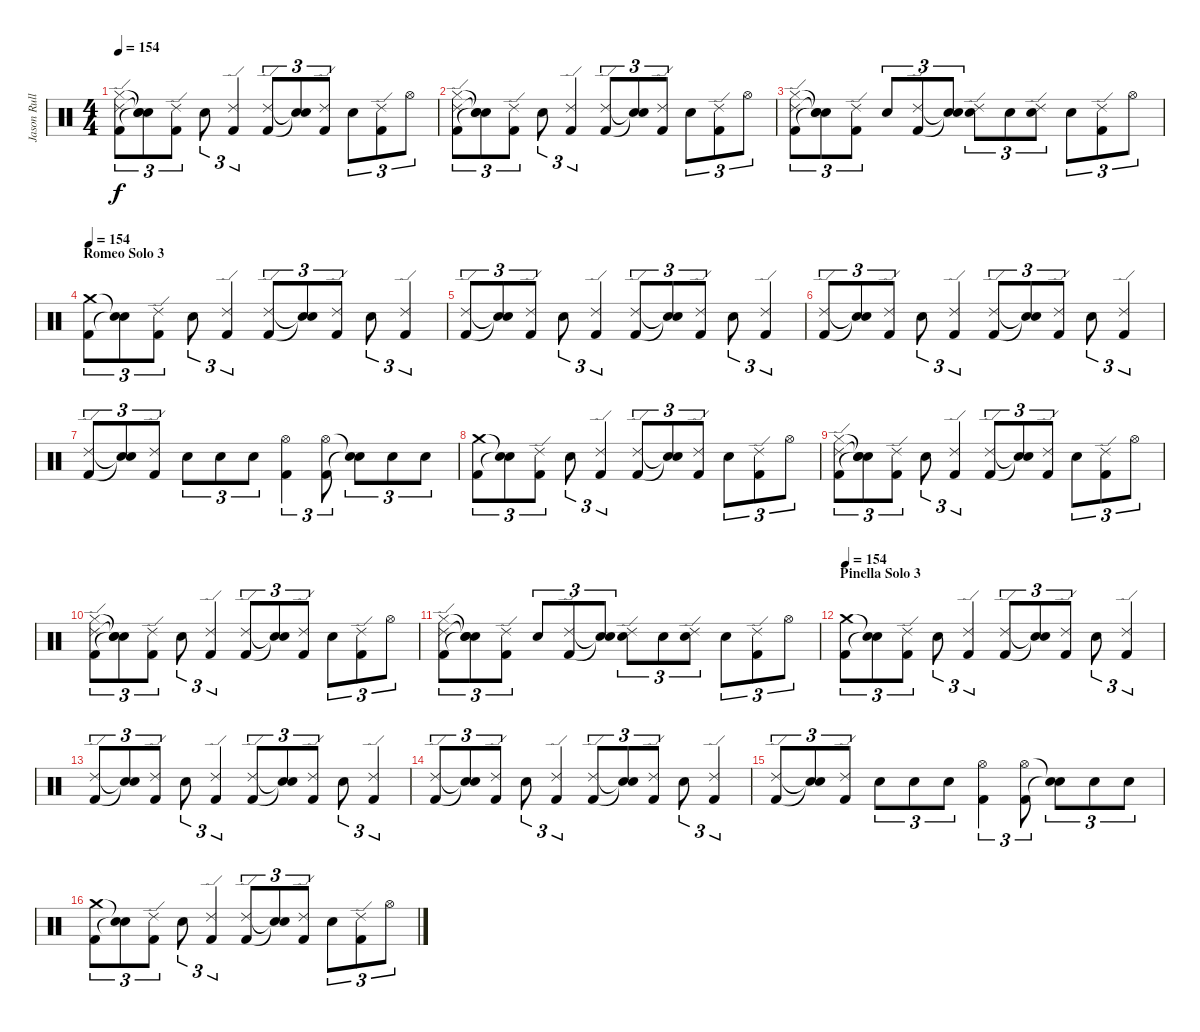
\track ("Jason Rullo" "Jason Rull") {instrument percussion}
\staff {score}
\articulation defaults
\ts (4 4)
\tempo 154
\clef neutral
\ks c
("Hi-Hat (closed)" "Ride (edge) 2" "Kick (hit) 2").8{tu (3 2) dy f} ("Snare (hit)"{t} "Snare (hit)"{t} "Snare (hit)"{t}).8{tu (3 2)} ("Ride (edge) 2" "Kick (hit) 2").8{tu (3 2)} "Electric Snare (hit)".8{tu (3 2)} ("Ride (edge) 2" "Kick (hit) 2").4{tu (3 2)} ("Ride (edge) 2" "Kick (hit) 2").8{tu (3 2)} ("Snare (hit)"{t} "Snare (hit)"{t}).8{tu (3 2)} ("Ride (edge) 2" "Kick (hit) 2").8{tu (3 2)} "Electric Snare (hit)".8{tu (3 2)} ("Ride (edge) 2" "Kick (hit) 2").8{tu (3 2)} "Hi-Hat (open)".8{tu (3 2)} |
("Hi-Hat (closed)" "Ride (edge) 2" "Kick (hit) 2").8{tu (3 2)} ("Snare (hit)"{t} "Snare (hit)"{t} "Snare (hit)"{t}).8{tu (3 2)} ("Ride (edge) 2" "Kick (hit) 2").8{tu (3 2)} "Electric Snare (hit)".8{tu (3 2)} ("Ride (edge) 2" "Kick (hit) 2").4{tu (3 2)} ("Ride (edge) 2" "Kick (hit) 2").8{tu (3 2)} ("Snare (hit)"{t} "Snare (hit)"{t}).8{tu (3 2)} ("Ride (edge) 2" "Kick (hit) 2").8{tu (3 2)} "Electric Snare (hit)".8{tu (3 2)} ("Ride (edge) 2" "Kick (hit) 2").8{tu (3 2)} "Hi-Hat (open)".8{tu (3 2)} |
("Hi-Hat (closed)" "Ride (edge) 2" "Kick (hit) 2").8{tu (3 2)} ("Snare (hit)"{t} "Snare (hit)"{t} "Snare (hit)"{t}).8{tu (3 2)} ("Ride (edge) 2" "Kick (hit) 2").8{tu (3 2)} "Electric Snare (hit)".8{tu (3 2)} ("Ride (edge) 2" "Kick (hit) 2").8{tu (3 2)} ("Snare (hit)"{t} "Snare (hit)"{t}).8{tu (3 2)} ("Electric Snare (hit)" "Ride (edge) 2").8{tu (3 2)} "Electric Snare (hit)".8{tu (3 2)} ("Electric Snare (hit)" "Ride (edge) 2").8{tu (3 2)} "Electric Snare (hit)".8{tu (3 2)} ("Ride (edge) 2" "Kick (hit) 2").8{tu (3 2)} "Hi-Hat (open)".8{tu (3 2)} |
\section ("" "Romeo Solo 3")
\tempo 154
("Crash medium (hit)" "Kick (hit) 2").8{tu (3 2)} ("Snare (hit)"{t} "Snare (hit)"{t}).8{tu (3 2)} ("Ride (edge) 2" "Kick (hit) 2").8{tu (3 2)} "Electric Snare (hit)".8{tu (3 2)} ("Ride (edge) 2" "Kick (hit) 2").4{tu (3 2)} ("Ride (edge) 2" "Kick (hit) 2").8{tu (3 2)} ("Snare (hit)"{t} "Snare (hit)"{t}).8{tu (3 2)} ("Ride (edge) 2" "Kick (hit) 2").8{tu (3 2)} "Electric Snare (hit)".8{tu (3 2)} ("Ride (edge) 2" "Kick (hit) 2").4{tu (3 2)} |
("Ride (edge) 2" "Kick (hit) 2").8{tu (3 2)} ("Snare (hit)"{t} "Snare (hit)"{t}).8{tu (3 2)} ("Ride (edge) 2" "Kick (hit) 2").8{tu (3 2)} "Electric Snare (hit)".8{tu (3 2)} ("Ride (edge) 2" "Kick (hit) 2").4{tu (3 2)} ("Ride (edge) 2" "Kick (hit) 2").8{tu (3 2)} ("Snare (hit)"{t} "Snare (hit)"{t}).8{tu (3 2)} ("Ride (edge) 2" "Kick (hit) 2").8{tu (3 2)} "Electric Snare (hit)".8{tu (3 2)} ("Ride (edge) 2" "Kick (hit) 2").4{tu (3 2)} |
("Ride (edge) 2" "Kick (hit) 2").8{tu (3 2)} ("Snare (hit)"{t} "Snare (hit)"{t}).8{tu (3 2)} ("Ride (edge) 2" "Kick (hit) 2").8{tu (3 2)} "Electric Snare (hit)".8{tu (3 2)} ("Ride (edge) 2" "Kick (hit) 2").4{tu (3 2)} ("Ride (edge) 2" "Kick (hit) 2").8{tu (3 2)} ("Snare (hit)"{t} "Snare (hit)"{t}).8{tu (3 2)} ("Ride (edge) 2" "Kick (hit) 2").8{tu (3 2)} "Electric Snare (hit)".8{tu (3 2)} ("Ride (edge) 2" "Kick (hit) 2").4{tu (3 2)} |
("Ride (edge) 2" "Kick (hit) 2").8{tu (3 2)} ("Snare (hit)"{t} "Snare (hit)"{t}).8{tu (3 2)} ("Ride (edge) 2" "Kick (hit) 2").8{tu (3 2)} "Electric Snare (hit)".8{tu (3 2)} "Electric Snare (hit)".8{tu (3 2)} "Electric Snare (hit)".8{tu (3 2)} ("Hi-Hat (open)" "Kick (hit) 2").4{tu (3 2)} ("Hi-Hat (open)" "Kick (hit) 2").8{tu (3 2)} ("Snare (hit)"{t} "Snare (hit)"{t}).8{tu (3 2)} "Electric Snare (hit)".8{tu (3 2)} "Electric Snare (hit)".8{tu (3 2)} |
("Crash medium (hit)" "Kick (hit) 2").8{tu (3 2)} ("Snare (hit)"{t} "Snare (hit)"{t}).8{tu (3 2)} ("Ride (edge) 2" "Kick (hit) 2").8{tu (3 2)} "Electric Snare (hit)".8{tu (3 2)} ("Ride (edge) 2" "Kick (hit) 2").4{tu (3 2)} ("Ride (edge) 2" "Kick (hit) 2").8{tu (3 2)} ("Snare (hit)"{t} "Snare (hit)"{t}).8{tu (3 2)} ("Ride (edge) 2" "Kick (hit) 2").8{tu (3 2)} "Electric Snare (hit)".8{tu (3 2)} ("Ride (edge) 2" "Kick (hit) 2").8{tu (3 2)} "Hi-Hat (open)".8{tu (3 2)} |
("Hi-Hat (closed)" "Ride (edge) 2" "Kick (hit) 2").8{tu (3 2)} ("Snare (hit)"{t} "Snare (hit)"{t} "Snare (hit)"{t}).8{tu (3 2)} ("Ride (edge) 2" "Kick (hit) 2").8{tu (3 2)} "Electric Snare (hit)".8{tu (3 2)} ("Ride (edge) 2" "Kick (hit) 2").4{tu (3 2)} ("Ride (edge) 2" "Kick (hit) 2").8{tu (3 2)} ("Snare (hit)"{t} "Snare (hit)"{t}).8{tu (3 2)} ("Ride (edge) 2" "Kick (hit) 2").8{tu (3 2)} "Electric Snare (hit)".8{tu (3 2)} ("Ride (edge) 2" "Kick (hit) 2").8{tu (3 2)} "Hi-Hat (open)".8{tu (3 2)} |
("Hi-Hat (closed)" "Ride (edge) 2" "Kick (hit) 2").8{tu (3 2)} ("Snare (hit)"{t} "Snare (hit)"{t} "Snare (hit)"{t}).8{tu (3 2)} ("Ride (edge) 2" "Kick (hit) 2").8{tu (3 2)} "Electric Snare (hit)".8{tu (3 2)} ("Ride (edge) 2" "Kick (hit) 2").4{tu (3 2)} ("Ride (edge) 2" "Kick (hit) 2").8{tu (3 2)} ("Snare (hit)"{t} "Snare (hit)"{t}).8{tu (3 2)} ("Ride (edge) 2" "Kick (hit) 2").8{tu (3 2)} "Electric Snare (hit)".8{tu (3 2)} ("Ride (edge) 2" "Kick (hit) 2").8{tu (3 2)} "Hi-Hat (open)".8{tu (3 2)} |
("Hi-Hat (closed)" "Ride (edge) 2" "Kick (hit) 2").8{tu (3 2)} ("Snare (hit)"{t} "Snare (hit)"{t} "Snare (hit)"{t}).8{tu (3 2)} ("Ride (edge) 2" "Kick (hit) 2").8{tu (3 2)} "Electric Snare (hit)".8{tu (3 2)} ("Ride (edge) 2" "Kick (hit) 2").8{tu (3 2)} ("Snare (hit)"{t} "Snare (hit)"{t}).8{tu (3 2)} ("Electric Snare (hit)" "Ride (edge) 2").8{tu (3 2)} "Electric Snare (hit)".8{tu (3 2)} ("Electric Snare (hit)" "Ride (edge) 2").8{tu (3 2)} "Electric Snare (hit)".8{tu (3 2)} ("Ride (edge) 2" "Kick (hit) 2").8{tu (3 2)} "Hi-Hat (open)".8{tu (3 2)} |
\section ("" "Pinella Solo 3")
\tempo 154
("Crash medium (hit)" "Kick (hit) 2").8{tu (3 2)} ("Snare (hit)"{t} "Snare (hit)"{t}).8{tu (3 2)} ("Ride (edge) 2" "Kick (hit) 2").8{tu (3 2)} "Electric Snare (hit)".8{tu (3 2)} ("Ride (edge) 2" "Kick (hit) 2").4{tu (3 2)} ("Ride (edge) 2" "Kick (hit) 2").8{tu (3 2)} ("Snare (hit)"{t} "Snare (hit)"{t}).8{tu (3 2)} ("Ride (edge) 2" "Kick (hit) 2").8{tu (3 2)} "Electric Snare (hit)".8{tu (3 2)} ("Ride (edge) 2" "Kick (hit) 2").4{tu (3 2)} |
("Ride (edge) 2" "Kick (hit) 2").8{tu (3 2)} ("Snare (hit)"{t} "Snare (hit)"{t}).8{tu (3 2)} ("Ride (edge) 2" "Kick (hit) 2").8{tu (3 2)} "Electric Snare (hit)".8{tu (3 2)} ("Ride (edge) 2" "Kick (hit) 2").4{tu (3 2)} ("Ride (edge) 2" "Kick (hit) 2").8{tu (3 2)} ("Snare (hit)"{t} "Snare (hit)"{t}).8{tu (3 2)} ("Ride (edge) 2" "Kick (hit) 2").8{tu (3 2)} "Electric Snare (hit)".8{tu (3 2)} ("Ride (edge) 2" "Kick (hit) 2").4{tu (3 2)} |
("Ride (edge) 2" "Kick (hit) 2").8{tu (3 2)} ("Snare (hit)"{t} "Snare (hit)"{t}).8{tu (3 2)} ("Ride (edge) 2" "Kick (hit) 2").8{tu (3 2)} "Electric Snare (hit)".8{tu (3 2)} ("Ride (edge) 2" "Kick (hit) 2").4{tu (3 2)} ("Ride (edge) 2" "Kick (hit) 2").8{tu (3 2)} ("Snare (hit)"{t} "Snare (hit)"{t}).8{tu (3 2)} ("Ride (edge) 2" "Kick (hit) 2").8{tu (3 2)} "Electric Snare (hit)".8{tu (3 2)} ("Ride (edge) 2" "Kick (hit) 2").4{tu (3 2)} |
("Ride (edge) 2" "Kick (hit) 2").8{tu (3 2)} ("Snare (hit)"{t} "Snare (hit)"{t}).8{tu (3 2)} ("Ride (edge) 2" "Kick (hit) 2").8{tu (3 2)} "Electric Snare (hit)".8{tu (3 2)} "Electric Snare (hit)".8{tu (3 2)} "Electric Snare (hit)".8{tu (3 2)} ("Hi-Hat (open)" "Kick (hit) 2").4{tu (3 2)} ("Hi-Hat (open)" "Kick (hit) 2").8{tu (3 2)} ("Snare (hit)"{t} "Snare (hit)"{t}).8{tu (3 2)} "Electric Snare (hit)".8{tu (3 2)} "Electric Snare (hit)".8{tu (3 2)} |
("Crash medium (hit)" "Kick (hit) 2").8{tu (3 2)} ("Snare (hit)"{t} "Snare (hit)"{t}).8{tu (3 2)} ("Ride (edge) 2" "Kick (hit) 2").8{tu (3 2)} "Electric Snare (hit)".8{tu (3 2)} ("Ride (edge) 2" "Kick (hit) 2").4{tu (3 2)} ("Ride (edge) 2" "Kick (hit) 2").8{tu (3 2)} ("Snare (hit)"{t} "Snare (hit)"{t}).8{tu (3 2)} ("Ride (edge) 2" "Kick (hit) 2").8{tu (3 2)} "Electric Snare (hit)".8{tu (3 2)} ("Ride (edge) 2" "Kick (hit) 2").8{tu (3 2)} "Hi-Hat (open)".8{tu (3 2)}
